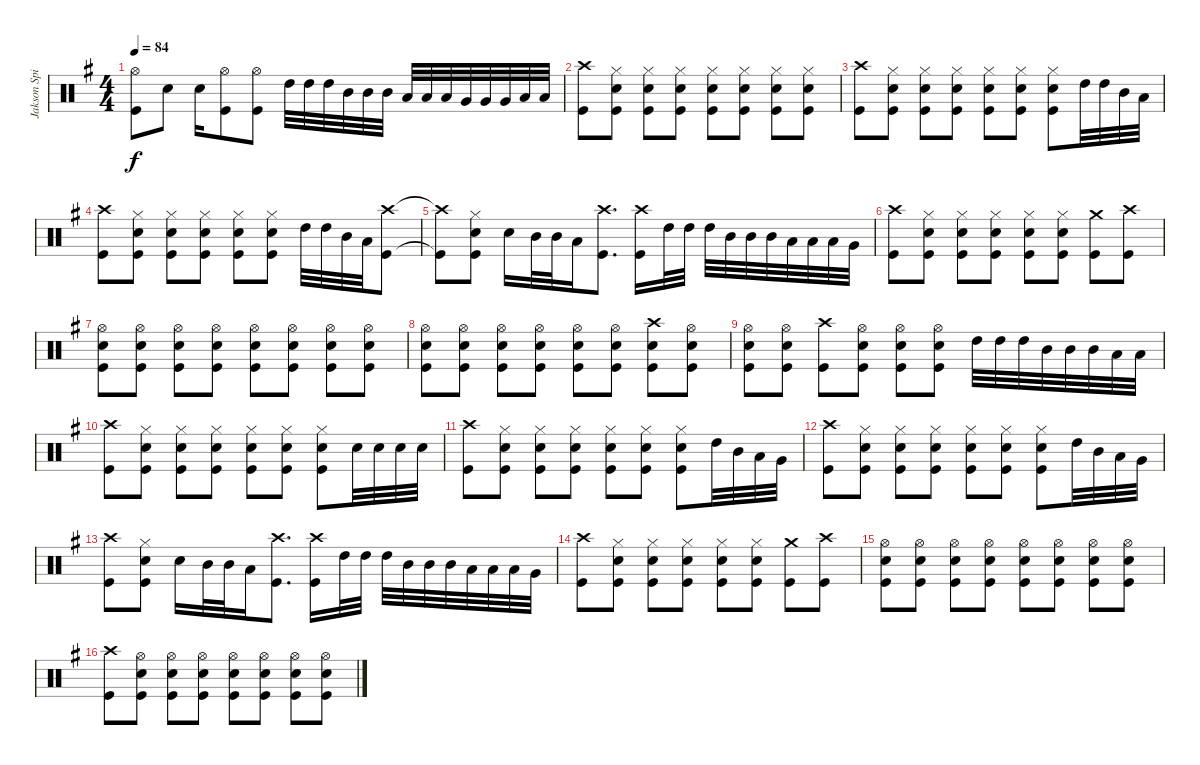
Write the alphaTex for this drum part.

\track ("Jakson Spires Drums" "Jakson Spi") {instrument percussion}
\staff {score}
\articulation defaults
\ts (4 4)
\tempo 84
\clef neutral
\ks g
("Hi-Hat (open)"{t} "Kick (hit)"{t}).8{dy f} "Snare (hit) 2".8 "Snare (hit) 2".16 ("Hi-Hat (open)" "Kick (hit)").8 ("Hi-Hat (open)" "Kick (hit)").8 "High Tom (hit)".32 "High Tom (hit)".32 "High Tom (hit)".32 "Mid Tom (hit)".32 "Mid Tom (hit)".32 "Mid Tom (hit)".32 "Low Tom (hit)".32 "Low Tom (hit)".32 "Low Tom (hit)".32 "Very Low Tom (hit)".32 "Very Low Tom (hit)".32 "Very Low Tom (hit)".32 "Low Floor Tom (hit)".32 "Low Floor Tom (hit)".32 |
("Crash high (hit)" "Kick (hit)").8 ("Hi-Hat (closed)" "Snare (hit) 2" "Kick (hit)").8 ("Hi-Hat (closed)" "Snare (hit) 2" "Kick (hit)").8 ("Hi-Hat (closed)" "Snare (hit) 2" "Kick (hit)").8 ("Hi-Hat (closed)" "Snare (hit) 2" "Kick (hit)").8 ("Hi-Hat (closed)" "Snare (hit) 2" "Kick (hit)").8 ("Hi-Hat (closed)" "Snare (hit) 2" "Kick (hit)").8 ("Hi-Hat (closed)" "Snare (hit) 2" "Kick (hit)").8 |
("Crash high (hit)" "Kick (hit)").8 ("Hi-Hat (closed)" "Snare (hit) 2" "Kick (hit)").8 ("Hi-Hat (closed)" "Snare (hit) 2" "Kick (hit)").8 ("Hi-Hat (closed)" "Snare (hit) 2" "Kick (hit)").8 ("Hi-Hat (closed)" "Snare (hit) 2" "Kick (hit)").8 ("Hi-Hat (closed)" "Snare (hit) 2" "Kick (hit)").8 ("Hi-Hat (closed)" "Snare (hit) 2" "Kick (hit)").8 "High Tom (hit)".32 "High Tom (hit)".32 "Mid Tom (hit)".32 "Low Tom (hit)".32 |
("Crash high (hit)" "Kick (hit)").8 ("Hi-Hat (closed)" "Snare (hit) 2" "Kick (hit)").8 ("Hi-Hat (closed)" "Snare (hit) 2" "Kick (hit)").8 ("Hi-Hat (closed)" "Snare (hit) 2" "Kick (hit)").8 ("Hi-Hat (closed)" "Snare (hit) 2" "Kick (hit)").8 ("Hi-Hat (closed)" "Snare (hit) 2" "Kick (hit)").8 "High Tom (hit)".32 "High Tom (hit)".32 "Mid Tom (hit)".32 "Low Tom (hit)".32 ("Crash high (hit)" "Kick (hit)").8 |
("Crash high (hit)"{t} "Kick (hit)"{t}).8 ("Hi-Hat (closed)" "Snare (hit) 2" "Kick (hit)").8 "Snare (hit) 2".16 "Mid Tom (hit)".32 "Mid Tom (hit)".32 "Low Tom (hit)".16 ("Crash high (hit)" "Kick (hit)").8{d} ("Crash high (hit)" "Kick (hit)").16 "High Tom (hit)".32 "High Tom (hit)".32 "High Tom (hit)".32 "Mid Tom (hit)".32 "Mid Tom (hit)".32 "Mid Tom (hit)".32 "Low Tom (hit)".32 "Low Tom (hit)".32 "Low Tom (hit)".32 "Very Low Tom (hit)".32 |
("Crash high (hit)" "Kick (hit)").8 ("Hi-Hat (closed)" "Snare (hit) 2" "Kick (hit)").8 ("Hi-Hat (closed)" "Snare (hit) 2" "Kick (hit)").8 ("Hi-Hat (closed)" "Snare (hit) 2" "Kick (hit)").8 ("Hi-Hat (closed)" "Snare (hit) 2" "Kick (hit)").8 ("Hi-Hat (closed)" "Snare (hit) 2" "Kick (hit)").8 ("Crash medium (hit)" "Kick (hit)").8 ("Crash high (hit)" "Kick (hit)").8 |
("Hi-Hat (open)" "Snare (hit) 2" "Kick (hit)").8 ("Hi-Hat (open)" "Snare (hit) 2" "Kick (hit)").8 ("Hi-Hat (open)" "Snare (hit) 2" "Kick (hit)").8 ("Hi-Hat (open)" "Snare (hit) 2" "Kick (hit)").8 ("Hi-Hat (open)" "Snare (hit) 2" "Kick (hit)").8 ("Hi-Hat (open)" "Snare (hit) 2" "Kick (hit)").8 ("Hi-Hat (open)" "Snare (hit) 2" "Kick (hit)").8 ("Hi-Hat (open)" "Snare (hit) 2" "Kick (hit)").8 |
("Hi-Hat (open)" "Snare (hit) 2" "Kick (hit)").8 ("Hi-Hat (open)" "Snare (hit) 2" "Kick (hit)").8 ("Hi-Hat (open)" "Snare (hit) 2" "Kick (hit)").8 ("Hi-Hat (open)" "Snare (hit) 2" "Kick (hit)").8 ("Hi-Hat (open)" "Snare (hit) 2" "Kick (hit)").8 ("Hi-Hat (open)" "Snare (hit) 2" "Kick (hit)").8 ("Crash high (hit)" "Snare (hit) 2" "Kick (hit)").8 ("Hi-Hat (open)" "Snare (hit) 2" "Kick (hit)").8 |
("Hi-Hat (open)" "Snare (hit) 2" "Kick (hit)").8 ("Hi-Hat (open)" "Snare (hit) 2" "Kick (hit)").8 ("Crash high (hit)" "Kick (hit)").8 ("Hi-Hat (open)" "Snare (hit) 2" "Kick (hit)").8 ("Hi-Hat (open)" "Snare (hit) 2" "Kick (hit)").8 ("Hi-Hat (open)" "Snare (hit) 2" "Kick (hit)").8 "High Tom (hit)".32 "High Tom (hit)".32 "High Tom (hit)".32 "Mid Tom (hit)".32 "Mid Tom (hit)".32 "Mid Tom (hit)".32 "Low Tom (hit)".32 "Low Tom (hit)".32 |
("Crash high (hit)" "Kick (hit)").8 ("Hi-Hat (closed)" "Snare (hit) 2" "Kick (hit)").8 ("Hi-Hat (closed)" "Snare (hit) 2" "Kick (hit)").8 ("Hi-Hat (closed)" "Snare (hit) 2" "Kick (hit)").8 ("Hi-Hat (closed)" "Snare (hit) 2" "Kick (hit)").8 ("Hi-Hat (closed)" "Snare (hit) 2" "Kick (hit)").8 ("Hi-Hat (closed)" "Snare (hit) 2" "Kick (hit)").8 "Snare (hit) 2".32 "Snare (hit) 2".32 "Snare (hit) 2".32 "Snare (hit) 2".32 |
("Crash high (hit)" "Kick (hit)").8 ("Hi-Hat (closed)" "Snare (hit) 2" "Kick (hit)").8 ("Hi-Hat (closed)" "Snare (hit) 2" "Kick (hit)").8 ("Hi-Hat (closed)" "Snare (hit) 2" "Kick (hit)").8 ("Hi-Hat (closed)" "Snare (hit) 2" "Kick (hit)").8 ("Hi-Hat (closed)" "Snare (hit) 2" "Kick (hit)").8 ("Hi-Hat (closed)" "Snare (hit) 2" "Kick (hit)").8 "High Tom (hit)".32 "Mid Tom (hit)".32 "Low Tom (hit)".32 "Very Low Tom (hit)".32 |
("Crash high (hit)" "Kick (hit)").8 ("Hi-Hat (closed)" "Snare (hit) 2" "Kick (hit)").8 ("Hi-Hat (closed)" "Snare (hit) 2" "Kick (hit)").8 ("Hi-Hat (closed)" "Snare (hit) 2" "Kick (hit)").8 ("Hi-Hat (closed)" "Snare (hit) 2" "Kick (hit)").8 ("Hi-Hat (closed)" "Snare (hit) 2" "Kick (hit)").8 ("Hi-Hat (closed)" "Snare (hit) 2" "Kick (hit)").8 "High Tom (hit)".32 "Mid Tom (hit)".32 "Low Tom (hit)".32 "Very Low Tom (hit)".32 |
("Crash high (hit)" "Kick (hit)").8 ("Hi-Hat (closed)" "Snare (hit) 2" "Kick (hit)").8 "Snare (hit) 2".16 "Mid Tom (hit)".32 "Mid Tom (hit)".32 "Low Tom (hit)".16 ("Crash high (hit)" "Kick (hit)").8{d} ("Crash high (hit)" "Kick (hit)").16 "High Tom (hit)".32 "High Tom (hit)".32 "High Tom (hit)".32 "Mid Tom (hit)".32 "Mid Tom (hit)".32 "Mid Tom (hit)".32 "Low Tom (hit)".32 "Low Tom (hit)".32 "Low Tom (hit)".32 "Very Low Tom (hit)".32 |
("Crash high (hit)" "Kick (hit)").8 ("Hi-Hat (closed)" "Snare (hit) 2" "Kick (hit)").8 ("Hi-Hat (closed)" "Snare (hit) 2" "Kick (hit)").8 ("Hi-Hat (closed)" "Snare (hit) 2" "Kick (hit)").8 ("Hi-Hat (closed)" "Snare (hit) 2" "Kick (hit)").8 ("Hi-Hat (closed)" "Snare (hit) 2" "Kick (hit)").8 ("Crash medium (hit)" "Kick (hit)").8 ("Crash high (hit)" "Kick (hit)").8 |
("Hi-Hat (open)" "Snare (hit) 2" "Kick (hit)").8 ("Hi-Hat (open)" "Snare (hit) 2" "Kick (hit)").8 ("Hi-Hat (open)" "Snare (hit) 2" "Kick (hit)").8 ("Hi-Hat (open)" "Snare (hit) 2" "Kick (hit)").8 ("Hi-Hat (open)" "Snare (hit) 2" "Kick (hit)").8 ("Hi-Hat (open)" "Snare (hit) 2" "Kick (hit)").8 ("Hi-Hat (open)" "Snare (hit) 2" "Kick (hit)").8 ("Hi-Hat (open)" "Snare (hit) 2" "Kick (hit)").8 |
("Crash high (hit)" "Kick (hit)").8 ("Hi-Hat (open)" "Snare (hit) 2" "Kick (hit)").8 ("Hi-Hat (open)" "Snare (hit) 2" "Kick (hit)").8 ("Hi-Hat (open)" "Snare (hit) 2" "Kick (hit)").8 ("Hi-Hat (open)" "Snare (hit) 2" "Kick (hit)").8 ("Hi-Hat (open)" "Snare (hit) 2" "Kick (hit)").8 ("Hi-Hat (open)" "Snare (hit) 2" "Kick (hit)").8 ("Hi-Hat (open)" "Snare (hit) 2" "Kick (hit)").8
